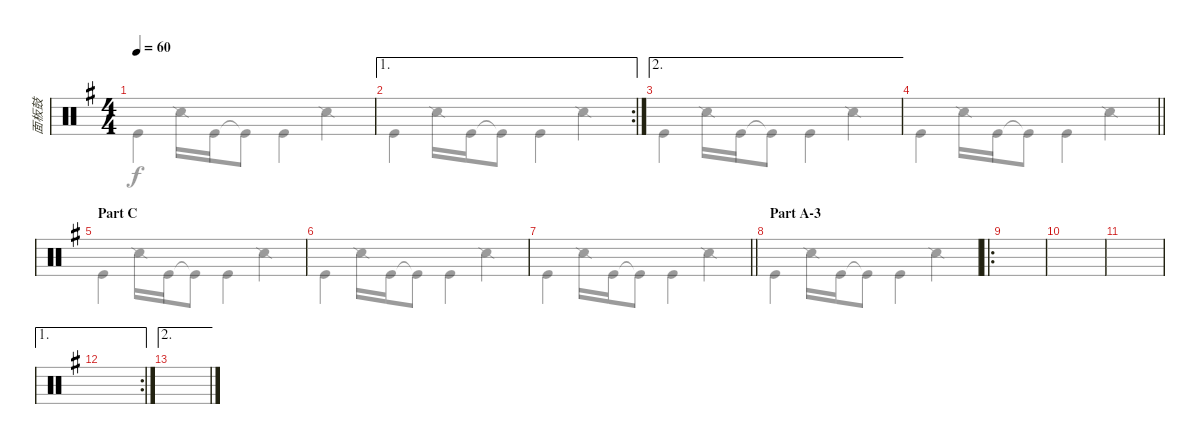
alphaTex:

\track ("面板鼓" "面板鼓") {instrument percussion}
\staff {score}
\articulation defaults
\voice
\ts (4 4)
\tempo 60
\clef neutral
\ks g
|
\ae 1
\rc 2
|
\ae 2
|
\barLineRight lightlight
|
\section ("" "Part C")
|
|
\barLineRight lightlight
|
\section ("" "Part A-3")
|
\ro
|
|
|
\ae 1
\rc 2
|
\ae 2
|
|
|
\voice
\clef neutral
\ks g "Kick (hit)".4{dy f} "Snare (side stick) 2".16 "Kick (hit)".16 "Kick (hit)"{t}.8 "Kick (hit)".4 "Snare (side stick) 2".4
|
"Kick (hit)".4 "Snare (side stick) 2".16 "Kick (hit)".16 "Kick (hit)"{t}.8 "Kick (hit)".4 "Snare (side stick) 2".4 |
"Kick (hit)".4 "Snare (side stick) 2".16 "Kick (hit)".16 "Kick (hit)"{t}.8 "Kick (hit)".4 "Snare (side stick) 2".4 |
\barLineRight lightlight "Kick (hit)".4 "Snare (side stick) 2".16 "Kick (hit)".16 "Kick (hit)"{t}.8 "Kick (hit)".4 "Snare (side stick) 2".4
|
"Kick (hit)".4 "Snare (side stick) 2".16 "Kick (hit)".16 "Kick (hit)"{t}.8 "Kick (hit)".4 "Snare (side stick) 2".4 |
"Kick (hit)".4 "Snare (side stick) 2".16 "Kick (hit)".16 "Kick (hit)"{t}.8 "Kick (hit)".4 "Snare (side stick) 2".4 |
\barLineRight lightlight "Kick (hit)".4 "Snare (side stick) 2".16 "Kick (hit)".16 "Kick (hit)"{t}.8 "Kick (hit)".4 "Snare (side stick) 2".4
|
"Kick (hit)".4 "Snare (side stick) 2".16 "Kick (hit)".16 "Kick (hit)"{t}.8 "Kick (hit)".4 "Snare (side stick) 2".4 |
|
|
|
|
|
|
|
